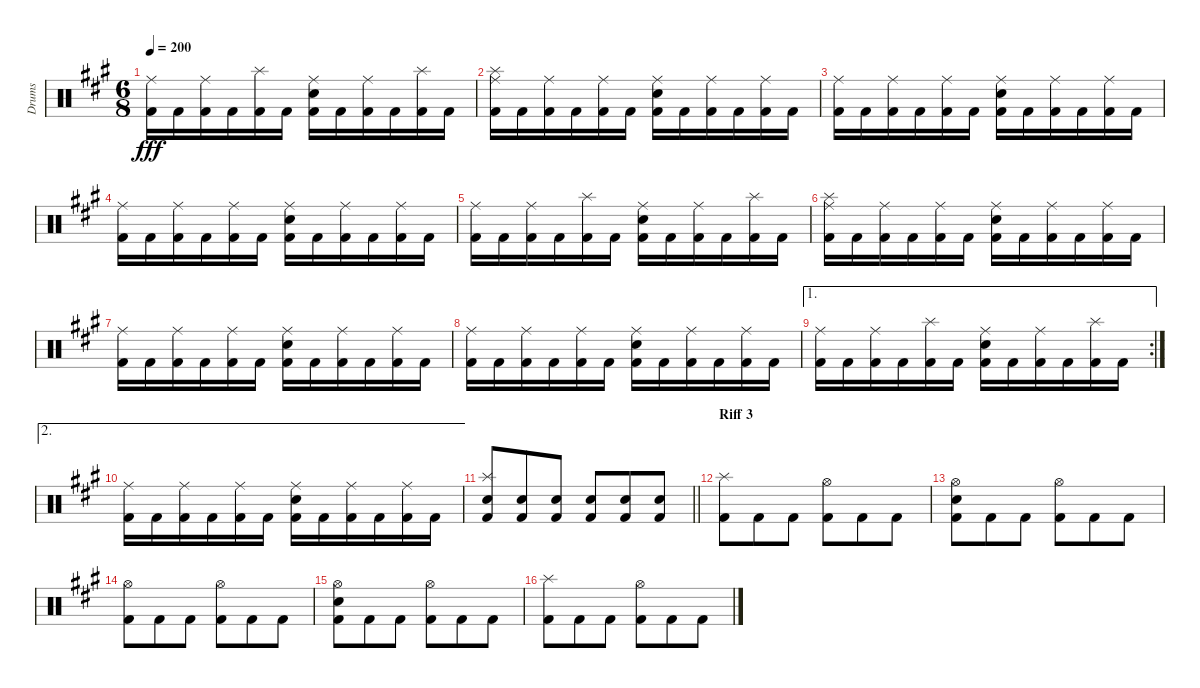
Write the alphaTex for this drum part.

\track ("Drums" "Drums") {instrument percussion}
\staff {score}
\articulation defaults
\ts (6 8)
\tempo 200
\clef neutral
\ks f#minor
("Ride (middle)" "Kick (hit) 2").16{dy fff} "Kick (hit) 2".16 ("Ride (middle)" "Kick (hit) 2").16 "Kick (hit) 2".16 ("Splash (hit)" "Kick (hit) 2").16 "Kick (hit) 2".16 ("Ride (middle)" "Electric Snare (hit)" "Kick (hit) 2").16 "Kick (hit) 2".16 ("Ride (middle)" "Kick (hit) 2").16 "Kick (hit) 2".16 ("Splash (hit)" "Kick (hit) 2").16 "Kick (hit) 2".16 |
("Ride (middle)" "Splash (hit)" "Kick (hit) 2").16 "Kick (hit) 2".16 ("Ride (middle)" "Kick (hit) 2").16 "Kick (hit) 2".16 ("Ride (middle)" "Kick (hit) 2").16 "Kick (hit) 2".16 ("Ride (middle)" "Electric Snare (hit)" "Kick (hit) 2").16 "Kick (hit) 2".16 ("Ride (middle)" "Kick (hit) 2").16 "Kick (hit) 2".16 ("Ride (middle)" "Kick (hit) 2").16 "Kick (hit) 2".16 |
("Ride (middle)" "Kick (hit) 2").16 "Kick (hit) 2".16 ("Ride (middle)" "Kick (hit) 2").16 "Kick (hit) 2".16 ("Ride (middle)" "Kick (hit) 2").16 "Kick (hit) 2".16 ("Ride (middle)" "Electric Snare (hit)" "Kick (hit) 2").16 "Kick (hit) 2".16 ("Ride (middle)" "Kick (hit) 2").16 "Kick (hit) 2".16 ("Ride (middle)" "Kick (hit) 2").16 "Kick (hit) 2".16 |
("Ride (middle)" "Kick (hit) 2").16 "Kick (hit) 2".16 ("Ride (middle)" "Kick (hit) 2").16 "Kick (hit) 2".16 ("Ride (middle)" "Kick (hit) 2").16 "Kick (hit) 2".16 ("Ride (middle)" "Electric Snare (hit)" "Kick (hit) 2").16 "Kick (hit) 2".16 ("Ride (middle)" "Kick (hit) 2").16 "Kick (hit) 2".16 ("Ride (middle)" "Kick (hit) 2").16 "Kick (hit) 2".16 |
("Ride (middle)" "Kick (hit) 2").16 "Kick (hit) 2".16 ("Ride (middle)" "Kick (hit) 2").16 "Kick (hit) 2".16 ("Splash (hit)" "Kick (hit) 2").16 "Kick (hit) 2".16 ("Ride (middle)" "Electric Snare (hit)" "Kick (hit) 2").16 "Kick (hit) 2".16 ("Ride (middle)" "Kick (hit) 2").16 "Kick (hit) 2".16 ("Splash (hit)" "Kick (hit) 2").16 "Kick (hit) 2".16 |
("Ride (middle)" "Splash (hit)" "Kick (hit) 2").16 "Kick (hit) 2".16 ("Ride (middle)" "Kick (hit) 2").16 "Kick (hit) 2".16 ("Ride (middle)" "Kick (hit) 2").16 "Kick (hit) 2".16 ("Ride (middle)" "Electric Snare (hit)" "Kick (hit) 2").16 "Kick (hit) 2".16 ("Ride (middle)" "Kick (hit) 2").16 "Kick (hit) 2".16 ("Ride (middle)" "Kick (hit) 2").16 "Kick (hit) 2".16 |
("Ride (middle)" "Kick (hit) 2").16 "Kick (hit) 2".16 ("Ride (middle)" "Kick (hit) 2").16 "Kick (hit) 2".16 ("Ride (middle)" "Kick (hit) 2").16 "Kick (hit) 2".16 ("Ride (middle)" "Electric Snare (hit)" "Kick (hit) 2").16 "Kick (hit) 2".16 ("Ride (middle)" "Kick (hit) 2").16 "Kick (hit) 2".16 ("Ride (middle)" "Kick (hit) 2").16 "Kick (hit) 2".16 |
("Ride (middle)" "Kick (hit) 2").16 "Kick (hit) 2".16 ("Ride (middle)" "Kick (hit) 2").16 "Kick (hit) 2".16 ("Ride (middle)" "Kick (hit) 2").16 "Kick (hit) 2".16 ("Ride (middle)" "Electric Snare (hit)" "Kick (hit) 2").16 "Kick (hit) 2".16 ("Ride (middle)" "Kick (hit) 2").16 "Kick (hit) 2".16 ("Ride (middle)" "Kick (hit) 2").16 "Kick (hit) 2".16 |
\ae 1
\rc 2
("Ride (middle)" "Kick (hit) 2").16 "Kick (hit) 2".16 ("Ride (middle)" "Kick (hit) 2").16 "Kick (hit) 2".16 ("Splash (hit)" "Kick (hit) 2").16 "Kick (hit) 2".16 ("Ride (middle)" "Electric Snare (hit)" "Kick (hit) 2").16 "Kick (hit) 2".16 ("Ride (middle)" "Kick (hit) 2").16 "Kick (hit) 2".16 ("Splash (hit)" "Kick (hit) 2").16 "Kick (hit) 2".16 |
\ae 2
("Ride (middle)" "Kick (hit) 2").16 "Kick (hit) 2".16 ("Ride (middle)" "Kick (hit) 2").16 "Kick (hit) 2".16 ("Ride (middle)" "Kick (hit) 2").16 "Kick (hit) 2".16 ("Ride (middle)" "Electric Snare (hit)" "Kick (hit) 2").16 "Kick (hit) 2".16 ("Ride (middle)" "Kick (hit) 2").16 "Kick (hit) 2".16 ("Ride (middle)" "Kick (hit) 2").16 "Kick (hit) 2".16 |
\barLineRight lightlight
("Splash (hit)" "Electric Snare (hit)" "Kick (hit) 2").8 ("Electric Snare (hit)" "Kick (hit) 2").8 ("Electric Snare (hit)" "Kick (hit) 2").8 ("Electric Snare (hit)" "Kick (hit) 2").8 ("Electric Snare (hit)" "Kick (hit) 2").8 ("Electric Snare (hit)" "Kick (hit) 2").8 |
\section ("" "Riff 3")
("Splash (hit)" "Kick (hit) 2").8 "Kick (hit) 2".8 "Kick (hit) 2".8 ("Hi-Hat (open)" "Kick (hit) 2").8 "Kick (hit) 2".8 "Kick (hit) 2".8 |
("Hi-Hat (open)" "Electric Snare (hit)" "Kick (hit) 2").8 "Kick (hit) 2".8 "Kick (hit) 2".8 ("Hi-Hat (open)" "Kick (hit) 2").8 "Kick (hit) 2".8 "Kick (hit) 2".8 |
("Hi-Hat (open)" "Kick (hit) 2").8 "Kick (hit) 2".8 "Kick (hit) 2".8 ("Hi-Hat (open)" "Kick (hit) 2").8 "Kick (hit) 2".8 "Kick (hit) 2".8 |
("Hi-Hat (open)" "Electric Snare (hit)" "Kick (hit) 2").8 "Kick (hit) 2".8 "Kick (hit) 2".8 ("Hi-Hat (open)" "Kick (hit) 2").8 "Kick (hit) 2".8 "Kick (hit) 2".8 |
("Splash (hit)" "Kick (hit) 2").8 "Kick (hit) 2".8 "Kick (hit) 2".8 ("Hi-Hat (open)" "Kick (hit) 2").8 "Kick (hit) 2".8 "Kick (hit) 2".8
